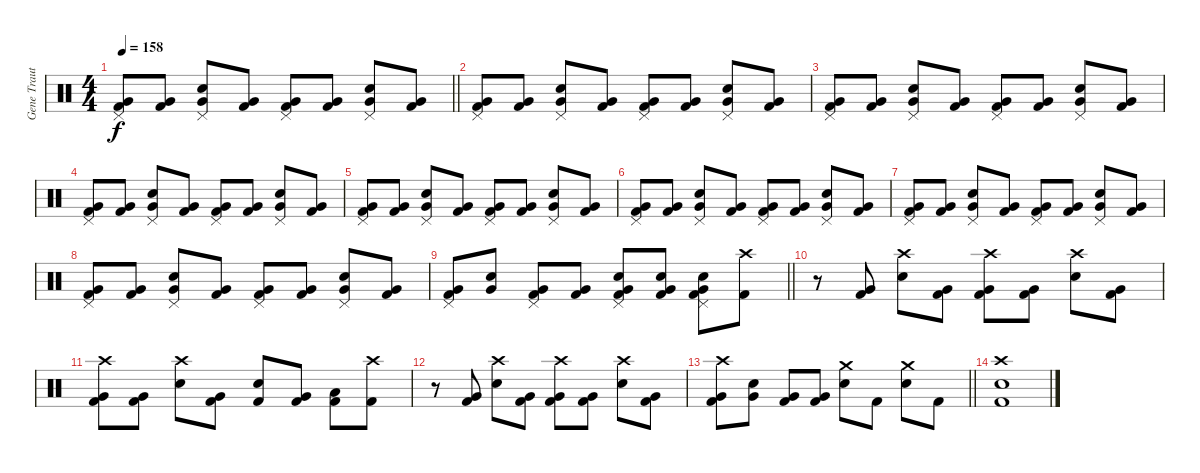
\track ("Gene Trautmann" "Gene Traut") {instrument percussion}
\staff {score}
\articulation defaults
\ts (4 4)
\tempo 158
\clef neutral
\barLineRight lightlight
\ks c
("Pedal Hi-Hat (hit)" "Very Low Tom (hit)" "Kick (hit) 2").8{dy f} ("Very Low Tom (hit)" "Kick (hit) 2").8 ("Pedal Hi-Hat (hit)" "Electric Snare (hit)" "Very Low Tom (hit)").8 ("Very Low Tom (hit)" "Kick (hit) 2").8 ("Pedal Hi-Hat (hit)" "Very Low Tom (hit)" "Kick (hit) 2").8 ("Very Low Tom (hit)" "Kick (hit) 2").8 ("Pedal Hi-Hat (hit)" "Electric Snare (hit)" "Very Low Tom (hit)").8 ("Very Low Tom (hit)" "Kick (hit) 2").8 |
\section ("" "")
("Pedal Hi-Hat (hit)" "Very Low Tom (hit)" "Kick (hit) 2").8 ("Very Low Tom (hit)" "Kick (hit) 2").8 ("Pedal Hi-Hat (hit)" "Electric Snare (hit)" "Very Low Tom (hit)").8 ("Very Low Tom (hit)" "Kick (hit) 2").8 ("Pedal Hi-Hat (hit)" "Very Low Tom (hit)" "Kick (hit) 2").8 ("Very Low Tom (hit)" "Kick (hit) 2").8 ("Pedal Hi-Hat (hit)" "Electric Snare (hit)" "Very Low Tom (hit)").8 ("Very Low Tom (hit)" "Kick (hit) 2").8 |
("Pedal Hi-Hat (hit)" "Very Low Tom (hit)" "Kick (hit) 2").8 ("Very Low Tom (hit)" "Kick (hit) 2").8 ("Pedal Hi-Hat (hit)" "Electric Snare (hit)" "Very Low Tom (hit)").8 ("Very Low Tom (hit)" "Kick (hit) 2").8 ("Pedal Hi-Hat (hit)" "Very Low Tom (hit)" "Kick (hit) 2").8 ("Very Low Tom (hit)" "Kick (hit) 2").8 ("Pedal Hi-Hat (hit)" "Electric Snare (hit)" "Very Low Tom (hit)").8 ("Very Low Tom (hit)" "Kick (hit) 2").8 |
("Pedal Hi-Hat (hit)" "Very Low Tom (hit)" "Kick (hit) 2").8 ("Very Low Tom (hit)" "Kick (hit) 2").8 ("Pedal Hi-Hat (hit)" "Electric Snare (hit)" "Very Low Tom (hit)").8 ("Very Low Tom (hit)" "Kick (hit) 2").8 ("Pedal Hi-Hat (hit)" "Very Low Tom (hit)" "Kick (hit) 2").8 ("Very Low Tom (hit)" "Kick (hit) 2").8 ("Pedal Hi-Hat (hit)" "Electric Snare (hit)" "Very Low Tom (hit)").8 ("Very Low Tom (hit)" "Kick (hit) 2").8 |
("Pedal Hi-Hat (hit)" "Very Low Tom (hit)" "Kick (hit) 2").8 ("Very Low Tom (hit)" "Kick (hit) 2").8 ("Pedal Hi-Hat (hit)" "Electric Snare (hit)" "Very Low Tom (hit)").8 ("Very Low Tom (hit)" "Kick (hit) 2").8 ("Pedal Hi-Hat (hit)" "Very Low Tom (hit)" "Kick (hit) 2").8 ("Very Low Tom (hit)" "Kick (hit) 2").8 ("Pedal Hi-Hat (hit)" "Electric Snare (hit)" "Very Low Tom (hit)").8 ("Very Low Tom (hit)" "Kick (hit) 2").8 |
("Pedal Hi-Hat (hit)" "Very Low Tom (hit)" "Kick (hit) 2").8 ("Very Low Tom (hit)" "Kick (hit) 2").8 ("Pedal Hi-Hat (hit)" "Electric Snare (hit)" "Very Low Tom (hit)").8 ("Very Low Tom (hit)" "Kick (hit) 2").8 ("Pedal Hi-Hat (hit)" "Very Low Tom (hit)" "Kick (hit) 2").8 ("Very Low Tom (hit)" "Kick (hit) 2").8 ("Pedal Hi-Hat (hit)" "Electric Snare (hit)" "Very Low Tom (hit)").8 ("Very Low Tom (hit)" "Kick (hit) 2").8 |
("Pedal Hi-Hat (hit)" "Very Low Tom (hit)" "Kick (hit) 2").8 ("Very Low Tom (hit)" "Kick (hit) 2").8 ("Pedal Hi-Hat (hit)" "Electric Snare (hit)" "Very Low Tom (hit)").8 ("Very Low Tom (hit)" "Kick (hit) 2").8 ("Pedal Hi-Hat (hit)" "Very Low Tom (hit)" "Kick (hit) 2").8 ("Very Low Tom (hit)" "Kick (hit) 2").8 ("Pedal Hi-Hat (hit)" "Electric Snare (hit)" "Very Low Tom (hit)").8 ("Very Low Tom (hit)" "Kick (hit) 2").8 |
("Pedal Hi-Hat (hit)" "Very Low Tom (hit)" "Kick (hit) 2").8 ("Very Low Tom (hit)" "Kick (hit) 2").8 ("Pedal Hi-Hat (hit)" "Electric Snare (hit)" "Very Low Tom (hit)").8 ("Very Low Tom (hit)" "Kick (hit) 2").8 ("Pedal Hi-Hat (hit)" "Very Low Tom (hit)" "Kick (hit) 2").8 ("Very Low Tom (hit)" "Kick (hit) 2").8 ("Pedal Hi-Hat (hit)" "Electric Snare (hit)" "Very Low Tom (hit)").8 ("Very Low Tom (hit)" "Kick (hit) 2").8 |
\barLineRight lightlight
("Pedal Hi-Hat (hit)" "Very Low Tom (hit)" "Kick (hit) 2").8 ("Electric Snare (hit)" "Very Low Tom (hit)").8 ("Pedal Hi-Hat (hit)" "Very Low Tom (hit)" "Kick (hit) 2").8 ("Very Low Tom (hit)" "Kick (hit) 2").8 ("Pedal Hi-Hat (hit)" "Electric Snare (hit)" "Very Low Tom (hit)" "Kick (hit) 2").8 ("Electric Snare (hit)" "Very Low Tom (hit)" "Kick (hit) 2").8 ("Pedal Hi-Hat (hit)" "Electric Snare (hit)" "Very Low Tom (hit)" "Kick (hit) 2").8 ("Crash high (hit)" "Kick (hit) 2").8 |
\section ("" "")
r.8 ("Very Low Tom (hit)" "Kick (hit) 2").8 ("Crash high (hit)" "Electric Snare (hit)").8 ("Very Low Tom (hit)" "Kick (hit) 2").8 ("Crash high (hit)" "Very Low Tom (hit)" "Kick (hit) 2").8 ("Very Low Tom (hit)" "Kick (hit) 2").8 ("Crash high (hit)" "Electric Snare (hit)").8 ("Very Low Tom (hit)" "Kick (hit) 2").8 |
("Crash high (hit)" "Very Low Tom (hit)" "Kick (hit) 2").8 ("Very Low Tom (hit)" "Kick (hit) 2").8 ("Crash high (hit)" "Electric Snare (hit)").8 ("Very Low Tom (hit)" "Kick (hit) 2").8 ("Electric Snare (hit)" "Kick (hit) 2").8 ("Very Low Tom (hit)" "Kick (hit) 2").8 ("Low Floor Tom (hit)" "Kick (hit) 2").8 ("Crash high (hit)" "Kick (hit) 2").8 |
r.8 ("Very Low Tom (hit)" "Kick (hit) 2").8 ("Crash high (hit)" "Electric Snare (hit)").8 ("Very Low Tom (hit)" "Kick (hit) 2").8 ("Crash high (hit)" "Very Low Tom (hit)" "Kick (hit) 2").8 ("Very Low Tom (hit)" "Kick (hit) 2").8 ("Crash high (hit)" "Electric Snare (hit)").8 ("Very Low Tom (hit)" "Kick (hit) 2").8 |
\barLineRight lightlight
("Crash high (hit)" "Very Low Tom (hit)" "Kick (hit) 2").8 ("Electric Snare (hit)" "Very Low Tom (hit)").8 ("Very Low Tom (hit)" "Kick (hit) 2").8 ("Very Low Tom (hit)" "Kick (hit) 2").8 ("Crash medium (hit)" "Electric Snare (hit)").8 "Kick (hit) 2".8 ("Crash medium (hit)" "Electric Snare (hit)").8 "Kick (hit) 2".8 |
("Crash high (hit)" "Electric Snare (hit)" "Kick (hit) 2").1
